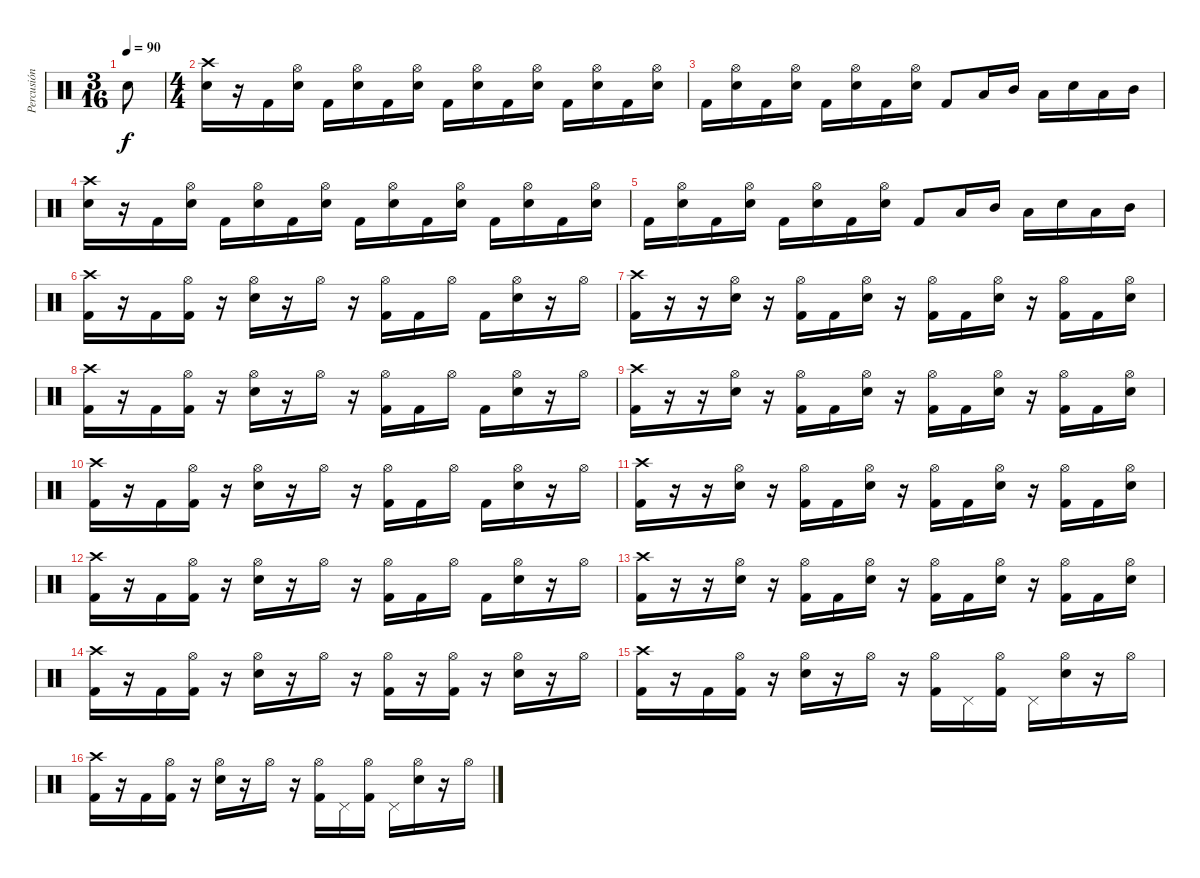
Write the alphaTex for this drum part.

\track ("Percusión" "Percusión") {instrument percussion}
\staff {score}
\articulation defaults
\ts (3 16)
\tempo 90
\clef neutral
\ks c "Electric Snare (hit)".8{dy f}
|
\ts (4 4)
("Crash high (hit)" "Electric Snare (hit)").16 r.16 "Kick (hit) 2".16 ("Hi-Hat (open)" "Electric Snare (hit)").16 "Kick (hit) 2".16 ("Hi-Hat (open)" "Electric Snare (hit)").16 "Kick (hit) 2".16 ("Hi-Hat (open)" "Electric Snare (hit)").16 "Kick (hit) 2".16 ("Hi-Hat (open)" "Electric Snare (hit)").16 "Kick (hit) 2".16 ("Hi-Hat (open)" "Electric Snare (hit)").16 "Kick (hit) 2".16 ("Hi-Hat (open)" "Electric Snare (hit)").16 "Kick (hit) 2".16 ("Hi-Hat (open)" "Electric Snare (hit)").16 |
"Kick (hit) 2".16 ("Hi-Hat (open)" "Electric Snare (hit)").16 "Kick (hit) 2".16 ("Hi-Hat (open)" "Electric Snare (hit)").16 "Kick (hit) 2".16 ("Hi-Hat (open)" "Electric Snare (hit)").16 "Kick (hit) 2".16 ("Hi-Hat (open)" "Electric Snare (hit)").16 "Kick (hit) 2".8 "Low Tom (hit)".16 "Mid Tom (hit)".16 "Low Tom (hit)".16 "Electric Snare (hit)".16 "Low Tom (hit)".16 "Mid Tom (hit)".16 |
("Crash high (hit)" "Electric Snare (hit)").16 r.16 "Kick (hit) 2".16 ("Hi-Hat (open)" "Electric Snare (hit)").16 "Kick (hit) 2".16 ("Hi-Hat (open)" "Electric Snare (hit)").16 "Kick (hit) 2".16 ("Hi-Hat (open)" "Electric Snare (hit)").16 "Kick (hit) 2".16 ("Hi-Hat (open)" "Electric Snare (hit)").16 "Kick (hit) 2".16 ("Hi-Hat (open)" "Electric Snare (hit)").16 "Kick (hit) 2".16 ("Hi-Hat (open)" "Electric Snare (hit)").16 "Kick (hit) 2".16 ("Hi-Hat (open)" "Electric Snare (hit)").16 |
"Kick (hit) 2".16 ("Hi-Hat (open)" "Electric Snare (hit)").16 "Kick (hit) 2".16 ("Hi-Hat (open)" "Electric Snare (hit)").16 "Kick (hit) 2".16 ("Hi-Hat (open)" "Electric Snare (hit)").16 "Kick (hit) 2".16 ("Hi-Hat (open)" "Electric Snare (hit)").16 "Kick (hit) 2".8 "Low Tom (hit)".16 "Mid Tom (hit)".16 "Low Tom (hit)".16 "Electric Snare (hit)".16 "Low Tom (hit)".16 "Mid Tom (hit)".16 |
("Crash high (hit)" "Kick (hit) 2").16 r.16 "Kick (hit) 2".16 ("Hi-Hat (open)" "Kick (hit) 2").16 r.16 ("Hi-Hat (open)" "Electric Snare (hit)").16 r.16 "Hi-Hat (open)".16 r.16 ("Hi-Hat (open)" "Kick (hit) 2").16 "Kick (hit) 2".16 "Hi-Hat (open)".16 "Kick (hit) 2".16 ("Hi-Hat (open)" "Electric Snare (hit)").16 r.16 "Hi-Hat (open)".16 |
("Crash high (hit)" "Kick (hit) 2").16 r.16 r.16 ("Hi-Hat (open)" "Electric Snare (hit)").16 r.16 ("Hi-Hat (open)" "Kick (hit) 2").16 "Kick (hit) 2".16 ("Hi-Hat (open)" "Electric Snare (hit)").16 r.16 ("Hi-Hat (open)" "Kick (hit) 2").16 "Kick (hit) 2".16 ("Hi-Hat (open)" "Electric Snare (hit)").16 r.16 ("Hi-Hat (open)" "Kick (hit) 2").16 "Kick (hit) 2".16 ("Hi-Hat (open)" "Electric Snare (hit)").16 |
("Crash high (hit)" "Kick (hit) 2").16 r.16 "Kick (hit) 2".16 ("Hi-Hat (open)" "Kick (hit) 2").16 r.16 ("Hi-Hat (open)" "Electric Snare (hit)").16 r.16 "Hi-Hat (open)".16 r.16 ("Hi-Hat (open)" "Kick (hit) 2").16 "Kick (hit) 2".16 "Hi-Hat (open)".16 "Kick (hit) 2".16 ("Hi-Hat (open)" "Electric Snare (hit)").16 r.16 "Hi-Hat (open)".16 |
("Crash high (hit)" "Kick (hit) 2").16 r.16 r.16 ("Hi-Hat (open)" "Electric Snare (hit)").16 r.16 ("Hi-Hat (open)" "Kick (hit) 2").16 "Kick (hit) 2".16 ("Hi-Hat (open)" "Electric Snare (hit)").16 r.16 ("Hi-Hat (open)" "Kick (hit) 2").16 "Kick (hit) 2".16 ("Hi-Hat (open)" "Electric Snare (hit)").16 r.16 ("Hi-Hat (open)" "Kick (hit) 2").16 "Kick (hit) 2".16 ("Hi-Hat (open)" "Electric Snare (hit)").16 |
("Crash high (hit)" "Kick (hit) 2").16 r.16 "Kick (hit) 2".16 ("Hi-Hat (open)" "Kick (hit) 2").16 r.16 ("Hi-Hat (open)" "Electric Snare (hit)").16 r.16 "Hi-Hat (open)".16 r.16 ("Hi-Hat (open)" "Kick (hit) 2").16 "Kick (hit) 2".16 "Hi-Hat (open)".16 "Kick (hit) 2".16 ("Hi-Hat (open)" "Electric Snare (hit)").16 r.16 "Hi-Hat (open)".16 |
("Crash high (hit)" "Kick (hit) 2").16 r.16 r.16 ("Hi-Hat (open)" "Electric Snare (hit)").16 r.16 ("Hi-Hat (open)" "Kick (hit) 2").16 "Kick (hit) 2".16 ("Hi-Hat (open)" "Electric Snare (hit)").16 r.16 ("Hi-Hat (open)" "Kick (hit) 2").16 "Kick (hit) 2".16 ("Hi-Hat (open)" "Electric Snare (hit)").16 r.16 ("Hi-Hat (open)" "Kick (hit) 2").16 "Kick (hit) 2".16 ("Hi-Hat (open)" "Electric Snare (hit)").16 |
("Crash high (hit)" "Kick (hit) 2").16 r.16 "Kick (hit) 2".16 ("Hi-Hat (open)" "Kick (hit) 2").16 r.16 ("Hi-Hat (open)" "Electric Snare (hit)").16 r.16 "Hi-Hat (open)".16 r.16 ("Hi-Hat (open)" "Kick (hit) 2").16 "Kick (hit) 2".16 "Hi-Hat (open)".16 "Kick (hit) 2".16 ("Hi-Hat (open)" "Electric Snare (hit)").16 r.16 "Hi-Hat (open)".16 |
("Crash high (hit)" "Kick (hit) 2").16 r.16 r.16 ("Hi-Hat (open)" "Electric Snare (hit)").16 r.16 ("Hi-Hat (open)" "Kick (hit) 2").16 "Kick (hit) 2".16 ("Hi-Hat (open)" "Electric Snare (hit)").16 r.16 ("Hi-Hat (open)" "Kick (hit) 2").16 "Kick (hit) 2".16 ("Hi-Hat (open)" "Electric Snare (hit)").16 r.16 ("Hi-Hat (open)" "Kick (hit) 2").16 "Kick (hit) 2".16 ("Hi-Hat (open)" "Electric Snare (hit)").16 |
("Crash high (hit)" "Kick (hit) 2").16 r.16 "Kick (hit) 2".16 ("Hi-Hat (open)" "Kick (hit) 2").16 r.16 ("Hi-Hat (open)" "Electric Snare (hit)").16 r.16 "Hi-Hat (open)".16 r.16 ("Hi-Hat (open)" "Kick (hit) 2").16 r.16 ("Hi-Hat (open)" "Kick (hit) 2").16 r.16 ("Hi-Hat (open)" "Electric Snare (hit)").16 r.16 "Hi-Hat (open)".16 |
("Crash high (hit)" "Kick (hit) 2").16 r.16 "Kick (hit) 2".16 ("Hi-Hat (open)" "Kick (hit) 2").16 r.16 ("Hi-Hat (open)" "Electric Snare (hit)").16 r.16 "Hi-Hat (open)".16 r.16 ("Hi-Hat (open)" "Kick (hit) 2").16 "Pedal Hi-Hat (hit)".16 ("Hi-Hat (open)" "Kick (hit) 2").16 "Pedal Hi-Hat (hit)".16 ("Hi-Hat (open)" "Electric Snare (hit)").16 r.16 "Hi-Hat (open)".16 |
("Crash high (hit)" "Kick (hit) 2").16 r.16 "Kick (hit) 2".16 ("Hi-Hat (open)" "Kick (hit) 2").16 r.16 ("Hi-Hat (open)" "Electric Snare (hit)").16 r.16 "Hi-Hat (open)".16 r.16 ("Hi-Hat (open)" "Kick (hit) 2").16 "Pedal Hi-Hat (hit)".16 ("Hi-Hat (open)" "Kick (hit) 2").16 "Pedal Hi-Hat (hit)".16 ("Hi-Hat (open)" "Electric Snare (hit)").16 r.16 "Hi-Hat (open)".16
